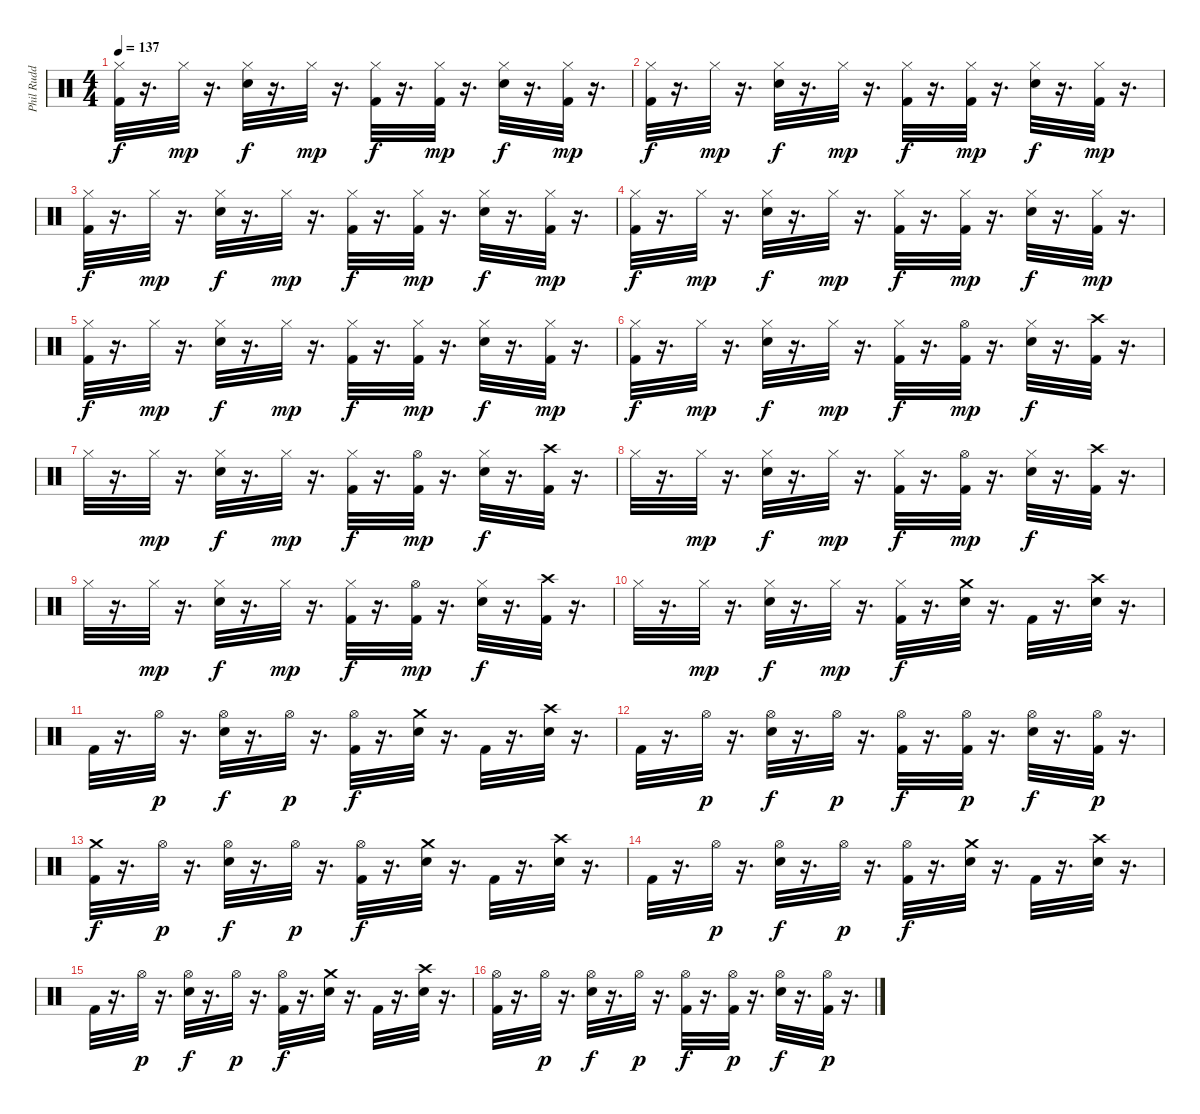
\track ("Phil Rudd" "Phil Rudd") {instrument percussion}
\staff
\articulation defaults
\ts (4 4)
\tempo 137
\clef neutral
\ks c
("Hi-Hat (closed)" "Kick (hit) 2").32{dy f} r.16{d} "Hi-Hat (closed)".32{dy mp} r.16{d} ("Hi-Hat (closed)" "Electric Snare (hit)").32{dy f} r.16{d} "Hi-Hat (closed)".32{dy mp} r.16{d} ("Hi-Hat (closed)" "Kick (hit) 2").32{dy f} r.16{d} ("Hi-Hat (closed)" "Kick (hit) 2").32{dy mp} r.16{d} ("Hi-Hat (closed)" "Electric Snare (hit)").32{dy f} r.16{d} ("Hi-Hat (closed)" "Kick (hit) 2").32{dy mp} r.16{d} |
("Hi-Hat (closed)" "Kick (hit) 2").32{dy f} r.16{d} "Hi-Hat (closed)".32{dy mp} r.16{d} ("Hi-Hat (closed)" "Electric Snare (hit)").32{dy f} r.16{d} "Hi-Hat (closed)".32{dy mp} r.16{d} ("Hi-Hat (closed)" "Kick (hit) 2").32{dy f} r.16{d} ("Hi-Hat (closed)" "Kick (hit) 2").32{dy mp} r.16{d} ("Hi-Hat (closed)" "Electric Snare (hit)").32{dy f} r.16{d} ("Hi-Hat (closed)" "Kick (hit) 2").32{dy mp} r.16{d} |
("Hi-Hat (closed)" "Kick (hit) 2").32{dy f} r.16{d} "Hi-Hat (closed)".32{dy mp} r.16{d} ("Hi-Hat (closed)" "Electric Snare (hit)").32{dy f} r.16{d} "Hi-Hat (closed)".32{dy mp} r.16{d} ("Hi-Hat (closed)" "Kick (hit) 2").32{dy f} r.16{d} ("Hi-Hat (closed)" "Kick (hit) 2").32{dy mp} r.16{d} ("Hi-Hat (closed)" "Electric Snare (hit)").32{dy f} r.16{d} ("Hi-Hat (closed)" "Kick (hit) 2").32{dy mp} r.16{d} |
("Hi-Hat (closed)" "Kick (hit) 2").32{dy f} r.16{d} "Hi-Hat (closed)".32{dy mp} r.16{d} ("Hi-Hat (closed)" "Electric Snare (hit)").32{dy f} r.16{d} "Hi-Hat (closed)".32{dy mp} r.16{d} ("Hi-Hat (closed)" "Kick (hit) 2").32{dy f} r.16{d} ("Hi-Hat (closed)" "Kick (hit) 2").32{dy mp} r.16{d} ("Hi-Hat (closed)" "Electric Snare (hit)").32{dy f} r.16{d} ("Hi-Hat (closed)" "Kick (hit) 2").32{dy mp} r.16{d} |
("Hi-Hat (closed)" "Kick (hit) 2").32{dy f} r.16{d} "Hi-Hat (closed)".32{dy mp} r.16{d} ("Hi-Hat (closed)" "Electric Snare (hit)").32{dy f} r.16{d} "Hi-Hat (closed)".32{dy mp} r.16{d} ("Hi-Hat (closed)" "Kick (hit) 2").32{dy f} r.16{d} ("Hi-Hat (closed)" "Kick (hit) 2").32{dy mp} r.16{d} ("Hi-Hat (closed)" "Electric Snare (hit)").32{dy f} r.16{d} ("Hi-Hat (closed)" "Kick (hit) 2").32{dy mp} r.16{d} |
("Hi-Hat (closed)" "Kick (hit) 2").32{dy f} r.16{d} "Hi-Hat (closed)".32{dy mp} r.16{d} ("Hi-Hat (closed)" "Electric Snare (hit)").32{dy f} r.16{d} "Hi-Hat (closed)".32{dy mp} r.16{d} ("Hi-Hat (closed)" "Kick (hit) 2").32{dy f} r.16{d} ("Hi-Hat (open)" "Kick (hit) 2").32{dy mp} r.16{d} ("Hi-Hat (closed)" "Electric Snare (hit)").32{dy f} r.16{d} ("Crash high (hit)" "Kick (hit) 2").32 r.16{d} |
"Hi-Hat (closed)".32 r.16{d} "Hi-Hat (closed)".32{dy mp} r.16{d} ("Hi-Hat (closed)" "Electric Snare (hit)").32{dy f} r.16{d} "Hi-Hat (closed)".32{dy mp} r.16{d} ("Hi-Hat (closed)" "Kick (hit) 2").32{dy f} r.16{d} ("Hi-Hat (open)" "Kick (hit) 2").32{dy mp} r.16{d} ("Hi-Hat (closed)" "Electric Snare (hit)").32{dy f} r.16{d} ("Crash high (hit)" "Kick (hit) 2").32 r.16{d} |
"Hi-Hat (closed)".32 r.16{d} "Hi-Hat (closed)".32{dy mp} r.16{d} ("Hi-Hat (closed)" "Electric Snare (hit)").32{dy f} r.16{d} "Hi-Hat (closed)".32{dy mp} r.16{d} ("Hi-Hat (closed)" "Kick (hit) 2").32{dy f} r.16{d} ("Hi-Hat (open)" "Kick (hit) 2").32{dy mp} r.16{d} ("Hi-Hat (closed)" "Electric Snare (hit)").32{dy f} r.16{d} ("Crash high (hit)" "Kick (hit) 2").32 r.16{d} |
"Hi-Hat (closed)".32 r.16{d} "Hi-Hat (closed)".32{dy mp} r.16{d} ("Hi-Hat (closed)" "Electric Snare (hit)").32{dy f} r.16{d} "Hi-Hat (closed)".32{dy mp} r.16{d} ("Hi-Hat (closed)" "Kick (hit) 2").32{dy f} r.16{d} ("Hi-Hat (open)" "Kick (hit) 2").32{dy mp} r.16{d} ("Hi-Hat (closed)" "Electric Snare (hit)").32{dy f} r.16{d} ("Crash high (hit)" "Kick (hit) 2").32 r.16{d} |
"Hi-Hat (closed)".32 r.16{d} "Hi-Hat (closed)".32{dy mp} r.16{d} ("Hi-Hat (closed)" "Electric Snare (hit)").32{dy f} r.16{d} "Hi-Hat (closed)".32{dy mp} r.16{d} ("Hi-Hat (closed)" "Kick (hit) 2").32{dy f} r.16{d} ("Crash medium (hit)" "Electric Snare (hit)").32 r.16{d} "Kick (hit) 2".32 r.16{d} ("Crash high (hit)" "Electric Snare (hit)").32 r.16{d} |
"Kick (hit) 2".32 r.16{d} "Hi-Hat (open)".32{dy p} r.16{d} ("Hi-Hat (open)" "Electric Snare (hit)").32{dy f} r.16{d} "Hi-Hat (open)".32{dy p} r.16{d} ("Hi-Hat (open)" "Kick (hit) 2").32{dy f} r.16{d} ("Crash medium (hit)" "Electric Snare (hit)").32 r.16{d} "Kick (hit) 2".32 r.16{d} ("Crash high (hit)" "Electric Snare (hit)").32 r.16{d} |
"Kick (hit) 2".32 r.16{d} "Hi-Hat (open)".32{dy p} r.16{d} ("Hi-Hat (open)" "Electric Snare (hit)").32{dy f} r.16{d} "Hi-Hat (open)".32{dy p} r.16{d} ("Hi-Hat (open)" "Kick (hit) 2").32{dy f} r.16{d} ("Hi-Hat (open)" "Kick (hit) 2").32{dy p} r.16{d} ("Hi-Hat (open)" "Electric Snare (hit)").32{dy f} r.16{d} ("Hi-Hat (open)" "Kick (hit) 2").32{dy p} r.16{d} |
("Crash medium (hit)" "Kick (hit) 2").32{dy f} r.16{d} "Hi-Hat (open)".32{dy p} r.16{d} ("Hi-Hat (open)" "Electric Snare (hit)").32{dy f} r.16{d} "Hi-Hat (open)".32{dy p} r.16{d} ("Hi-Hat (open)" "Kick (hit) 2").32{dy f} r.16{d} ("Crash medium (hit)" "Electric Snare (hit)").32 r.16{d} "Kick (hit) 2".32 r.16{d} ("Crash high (hit)" "Electric Snare (hit)").32 r.16{d} |
"Kick (hit) 2".32 r.16{d} "Hi-Hat (open)".32{dy p} r.16{d} ("Hi-Hat (open)" "Electric Snare (hit)").32{dy f} r.16{d} "Hi-Hat (open)".32{dy p} r.16{d} ("Kick (hit) 2" "Hi-Hat (open)").32{dy f} r.16{d} ("Electric Snare (hit)" "Crash medium (hit)").32 r.16{d} "Kick (hit) 2".32 r.16{d} ("Electric Snare (hit)" "Crash high (hit)").32 r.16{d} |
"Kick (hit) 2".32 r.16{d} "Hi-Hat (open)".32{dy p} r.16{d} ("Hi-Hat (open)" "Electric Snare (hit)").32{dy f} r.16{d} "Hi-Hat (open)".32{dy p} r.16{d} ("Hi-Hat (open)" "Kick (hit) 2").32{dy f} r.16{d} ("Crash medium (hit)" "Electric Snare (hit)").32 r.16{d} "Kick (hit) 2".32 r.16{d} ("Crash high (hit)" "Electric Snare (hit)").32 r.16{d} |
("Kick (hit) 2" "Hi-Hat (open)").32 r.16{d} "Hi-Hat (open)".32{dy p} r.16{d} ("Hi-Hat (open)" "Electric Snare (hit)").32{dy f} r.16{d} "Hi-Hat (open)".32{dy p} r.16{d} ("Hi-Hat (open)" "Kick (hit) 2").32{dy f} r.16{d} ("Hi-Hat (open)" "Kick (hit) 2").32{dy p} r.16{d} ("Hi-Hat (open)" "Electric Snare (hit)").32{dy f} r.16{d} ("Hi-Hat (open)" "Kick (hit) 2").32{dy p} r.16{d}
